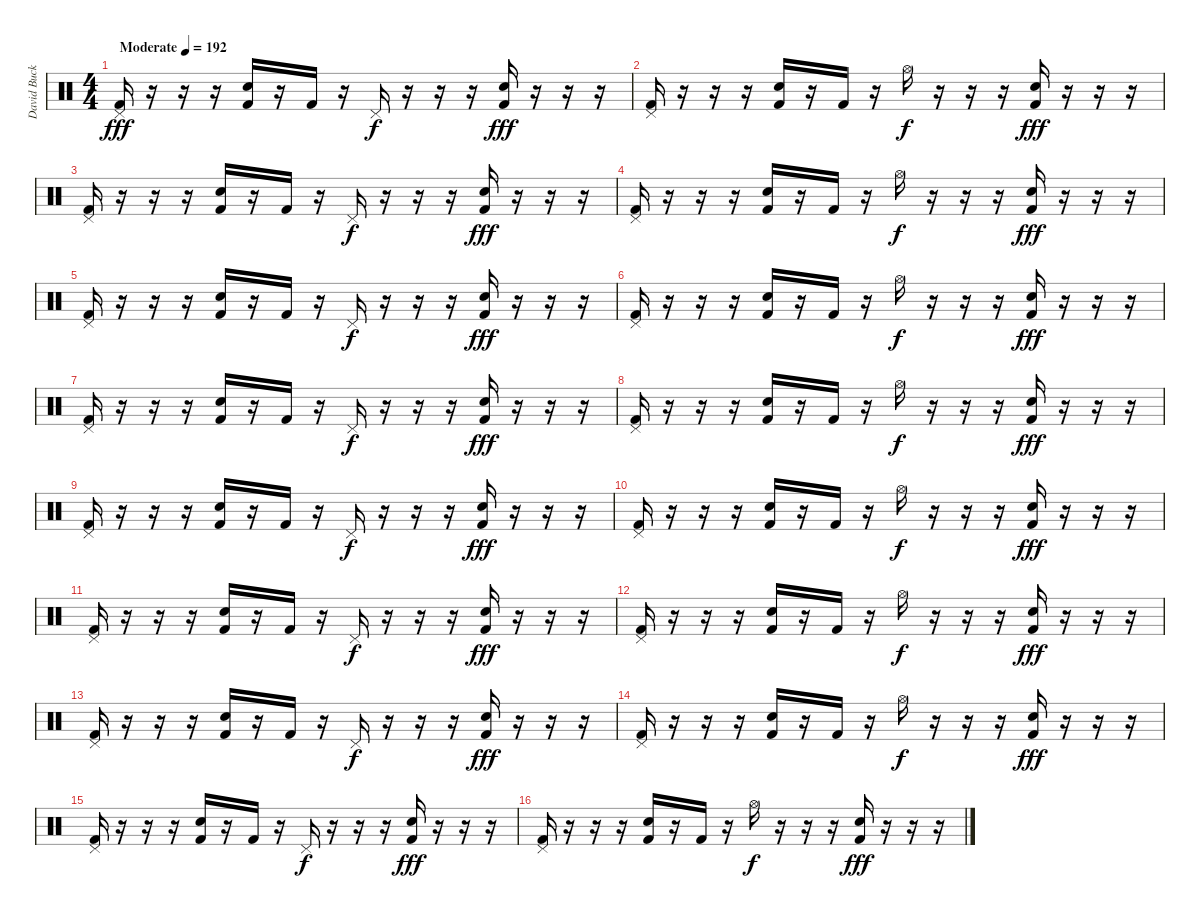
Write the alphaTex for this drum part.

\track ("David Buckner" "David Buck") {instrument percussion}
\staff {score}
\articulation defaults
\ts (4 4)
\tempo (192 "Moderate")
\clef neutral
\ks c
("Pedal Hi-Hat (hit)" "Kick (hit) 2").16{dy fff} r.16 r.16 r.16 ("Snare (hit) 2" "Kick (hit) 2").16 r.16 "Kick (hit) 2".16 r.16 "Pedal Hi-Hat (hit)".16{dy f} r.16 r.16 r.16 ("Snare (hit) 2" "Kick (hit) 2").16{dy fff} r.16 r.16 r.16 |
("Pedal Hi-Hat (hit)" "Kick (hit) 2").16 r.16 r.16 r.16 ("Snare (hit) 2" "Kick (hit) 2").16 r.16 "Kick (hit) 2".16 r.16 "Hi-Hat (open)".16{dy f} r.16 r.16 r.16 ("Snare (hit) 2" "Kick (hit) 2").16{dy fff} r.16 r.16 r.16 |
("Pedal Hi-Hat (hit)" "Kick (hit) 2").16 r.16 r.16 r.16 ("Snare (hit) 2" "Kick (hit) 2").16 r.16 "Kick (hit) 2".16 r.16 "Pedal Hi-Hat (hit)".16{dy f} r.16 r.16 r.16 ("Snare (hit) 2" "Kick (hit) 2").16{dy fff} r.16 r.16 r.16 |
("Pedal Hi-Hat (hit)" "Kick (hit) 2").16 r.16 r.16 r.16 ("Snare (hit) 2" "Kick (hit) 2").16 r.16 "Kick (hit) 2".16 r.16 "Hi-Hat (open)".16{dy f} r.16 r.16 r.16 ("Snare (hit) 2" "Kick (hit) 2").16{dy fff} r.16 r.16 r.16 |
("Pedal Hi-Hat (hit)" "Kick (hit) 2").16 r.16 r.16 r.16 ("Snare (hit) 2" "Kick (hit) 2").16 r.16 "Kick (hit) 2".16 r.16 "Pedal Hi-Hat (hit)".16{dy f} r.16 r.16 r.16 ("Snare (hit) 2" "Kick (hit) 2").16{dy fff} r.16 r.16 r.16 |
("Pedal Hi-Hat (hit)" "Kick (hit) 2").16 r.16 r.16 r.16 ("Snare (hit) 2" "Kick (hit) 2").16 r.16 "Kick (hit) 2".16 r.16 "Hi-Hat (open)".16{dy f} r.16 r.16 r.16 ("Snare (hit) 2" "Kick (hit) 2").16{dy fff} r.16 r.16 r.16 |
("Pedal Hi-Hat (hit)" "Kick (hit) 2").16 r.16 r.16 r.16 ("Snare (hit) 2" "Kick (hit) 2").16 r.16 "Kick (hit) 2".16 r.16 "Pedal Hi-Hat (hit)".16{dy f} r.16 r.16 r.16 ("Snare (hit) 2" "Kick (hit) 2").16{dy fff} r.16 r.16 r.16 |
("Pedal Hi-Hat (hit)" "Kick (hit) 2").16 r.16 r.16 r.16 ("Snare (hit) 2" "Kick (hit) 2").16 r.16 "Kick (hit) 2".16 r.16 "Hi-Hat (open)".16{dy f} r.16 r.16 r.16 ("Snare (hit) 2" "Kick (hit) 2").16{dy fff} r.16 r.16 r.16 |
("Pedal Hi-Hat (hit)" "Kick (hit) 2").16 r.16 r.16 r.16 ("Snare (hit) 2" "Kick (hit) 2").16 r.16 "Kick (hit) 2".16 r.16 "Pedal Hi-Hat (hit)".16{dy f} r.16 r.16 r.16 ("Snare (hit) 2" "Kick (hit) 2").16{dy fff} r.16 r.16 r.16 |
("Pedal Hi-Hat (hit)" "Kick (hit) 2").16 r.16 r.16 r.16 ("Snare (hit) 2" "Kick (hit) 2").16 r.16 "Kick (hit) 2".16 r.16 "Hi-Hat (open)".16{dy f} r.16 r.16 r.16 ("Snare (hit) 2" "Kick (hit) 2").16{dy fff} r.16 r.16 r.16 |
("Pedal Hi-Hat (hit)" "Kick (hit) 2").16 r.16 r.16 r.16 ("Snare (hit) 2" "Kick (hit) 2").16 r.16 "Kick (hit) 2".16 r.16 "Pedal Hi-Hat (hit)".16{dy f} r.16 r.16 r.16 ("Snare (hit) 2" "Kick (hit) 2").16{dy fff} r.16 r.16 r.16 |
("Pedal Hi-Hat (hit)" "Kick (hit) 2").16 r.16 r.16 r.16 ("Snare (hit) 2" "Kick (hit) 2").16 r.16 "Kick (hit) 2".16 r.16 "Hi-Hat (open)".16{dy f} r.16 r.16 r.16 ("Snare (hit) 2" "Kick (hit) 2").16{dy fff} r.16 r.16 r.16 |
("Pedal Hi-Hat (hit)" "Kick (hit) 2").16 r.16 r.16 r.16 ("Snare (hit) 2" "Kick (hit) 2").16 r.16 "Kick (hit) 2".16 r.16 "Pedal Hi-Hat (hit)".16{dy f} r.16 r.16 r.16 ("Snare (hit) 2" "Kick (hit) 2").16{dy fff} r.16 r.16 r.16 |
("Pedal Hi-Hat (hit)" "Kick (hit) 2").16 r.16 r.16 r.16 ("Snare (hit) 2" "Kick (hit) 2").16 r.16 "Kick (hit) 2".16 r.16 "Hi-Hat (open)".16{dy f} r.16 r.16 r.16 ("Snare (hit) 2" "Kick (hit) 2").16{dy fff} r.16 r.16 r.16 |
("Pedal Hi-Hat (hit)" "Kick (hit) 2").16 r.16 r.16 r.16 ("Snare (hit) 2" "Kick (hit) 2").16 r.16 "Kick (hit) 2".16 r.16 "Pedal Hi-Hat (hit)".16{dy f} r.16 r.16 r.16 ("Snare (hit) 2" "Kick (hit) 2").16{dy fff} r.16 r.16 r.16 |
("Pedal Hi-Hat (hit)" "Kick (hit) 2").16 r.16 r.16 r.16 ("Snare (hit) 2" "Kick (hit) 2").16 r.16 "Kick (hit) 2".16 r.16 "Hi-Hat (open)".16{dy f} r.16 r.16 r.16 ("Snare (hit) 2" "Kick (hit) 2").16{dy fff} r.16 r.16 r.16
